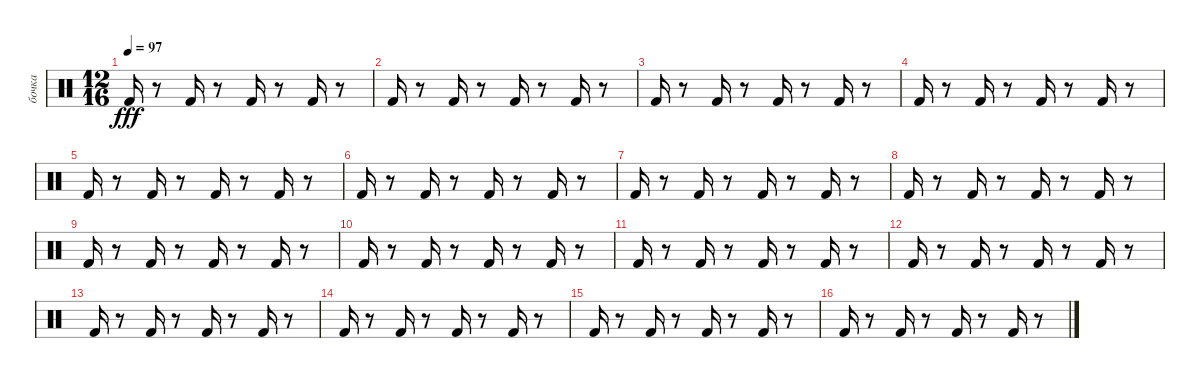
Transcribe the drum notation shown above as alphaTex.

\track ("бочка" "бочка") {instrument percussion}
\staff {score}
\articulation defaults
\ts (12 16)
\tempo 97
\clef neutral
\ks c "Kick (hit) 2".16{dy fff}
r.8 "Kick (hit) 2".16 r.8 "Kick (hit) 2".16 r.8 "Kick (hit) 2".16 r.8 |
"Kick (hit) 2".16 r.8 "Kick (hit) 2".16 r.8 "Kick (hit) 2".16 r.8 "Kick (hit) 2".16 r.8 |
"Kick (hit) 2".16 r.8 "Kick (hit) 2".16 r.8 "Kick (hit) 2".16 r.8 "Kick (hit) 2".16 r.8 |
"Kick (hit) 2".16 r.8 "Kick (hit) 2".16 r.8 "Kick (hit) 2".16 r.8 "Kick (hit) 2".16 r.8 |
"Kick (hit) 2".16 r.8 "Kick (hit) 2".16 r.8 "Kick (hit) 2".16 r.8 "Kick (hit) 2".16 r.8 |
"Kick (hit) 2".16 r.8 "Kick (hit) 2".16 r.8 "Kick (hit) 2".16 r.8 "Kick (hit) 2".16 r.8 |
"Kick (hit) 2".16 r.8 "Kick (hit) 2".16 r.8 "Kick (hit) 2".16 r.8 "Kick (hit) 2".16 r.8 |
"Kick (hit) 2".16 r.8 "Kick (hit) 2".16 r.8 "Kick (hit) 2".16 r.8 "Kick (hit) 2".16 r.8 |
"Kick (hit) 2".16 r.8 "Kick (hit) 2".16 r.8 "Kick (hit) 2".16 r.8 "Kick (hit) 2".16 r.8 |
"Kick (hit) 2".16 r.8 "Kick (hit) 2".16 r.8 "Kick (hit) 2".16 r.8 "Kick (hit) 2".16 r.8 |
"Kick (hit) 2".16 r.8 "Kick (hit) 2".16 r.8 "Kick (hit) 2".16 r.8 "Kick (hit) 2".16 r.8 |
"Kick (hit) 2".16 r.8 "Kick (hit) 2".16 r.8 "Kick (hit) 2".16 r.8 "Kick (hit) 2".16 r.8 |
"Kick (hit) 2".16 r.8 "Kick (hit) 2".16{volume 16} r.8 "Kick (hit) 2".16 r.8 "Kick (hit) 2".16{volume 15} r.8 |
"Kick (hit) 2".16{volume 15} r.8 "Kick (hit) 2".16{volume 14} r.8 "Kick (hit) 2".16{volume 14} r.8 "Kick (hit) 2".16{volume 14} r.8 |
"Kick (hit) 2".16{volume 13} r.8 "Kick (hit) 2".16{volume 12} r.8 "Kick (hit) 2".16{volume 11} r.8 "Kick (hit) 2".16{volume 10} r.8 |
"Kick (hit) 2".16{volume 10} r.8 "Kick (hit) 2".16{volume 8} r.8 "Kick (hit) 2".16{volume 8} r.8 "Kick (hit) 2".16{volume 7} r.8
